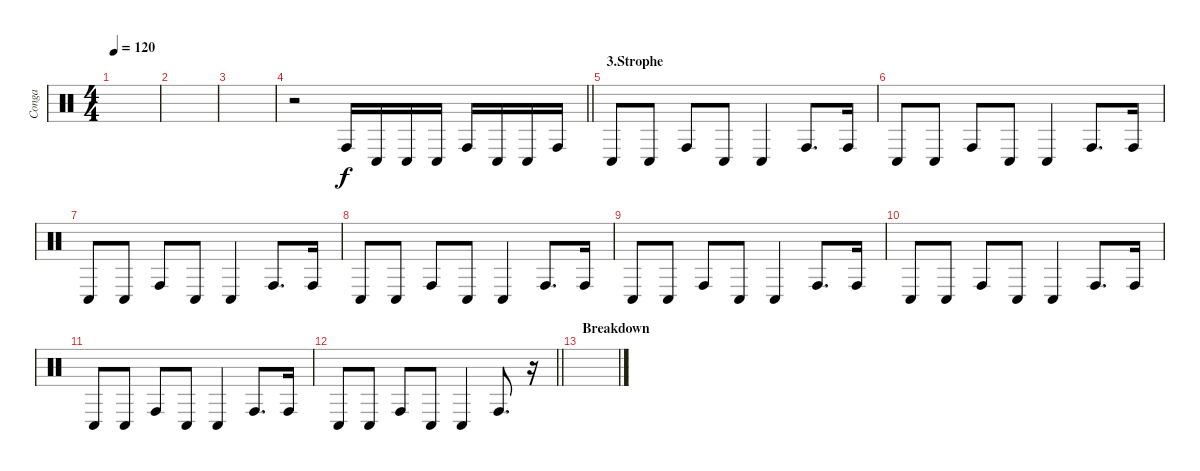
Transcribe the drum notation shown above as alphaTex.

\track ("Conga" "Conga") {instrument percussion}
\staff {score}
\articulation defaults
\ts (4 4)
\tempo 120
\clef neutral
\ks c
|
|
|
\barLineRight lightlight
r.2 "Conga high (hit)".16 "Conga low (hit)".16 "Conga low (hit)".16 "Conga low (hit)".16 "Conga high (hit)".16 "Conga low (hit)".16 "Conga low (hit)".16 "Conga high (hit)".16 |
\section ("" "3.Strophe")
"Conga low (hit)".8 "Conga low (hit)".8 "Conga high (hit)".8 "Conga low (hit)".8 "Conga low (hit)".4 "Conga high (hit)".8{d} "Conga high (hit)".16 |
"Conga low (hit)".8 "Conga low (hit)".8 "Conga high (hit)".8 "Conga low (hit)".8 "Conga low (hit)".4 "Conga high (hit)".8{d} "Conga high (hit)".16 |
"Conga low (hit)".8 "Conga low (hit)".8 "Conga high (hit)".8 "Conga low (hit)".8 "Conga low (hit)".4 "Conga high (hit)".8{d} "Conga high (hit)".16 |
"Conga low (hit)".8 "Conga low (hit)".8 "Conga high (hit)".8 "Conga low (hit)".8 "Conga low (hit)".4 "Conga high (hit)".8{d} "Conga high (hit)".16 |
"Conga low (hit)".8 "Conga low (hit)".8 "Conga high (hit)".8 "Conga low (hit)".8 "Conga low (hit)".4 "Conga high (hit)".8{d} "Conga high (hit)".16 |
"Conga low (hit)".8 "Conga low (hit)".8 "Conga high (hit)".8 "Conga low (hit)".8 "Conga low (hit)".4 "Conga high (hit)".8{d} "Conga high (hit)".16 |
"Conga low (hit)".8 "Conga low (hit)".8 "Conga high (hit)".8 "Conga low (hit)".8 "Conga low (hit)".4 "Conga high (hit)".8{d} "Conga high (hit)".16 |
\barLineRight lightlight "Conga low (hit)".8 "Conga low (hit)".8 "Conga high (hit)".8 "Conga low (hit)".8 "Conga low (hit)".4 "Conga high (hit)".8{d}
r.16 |
\section ("" "Breakdown")
